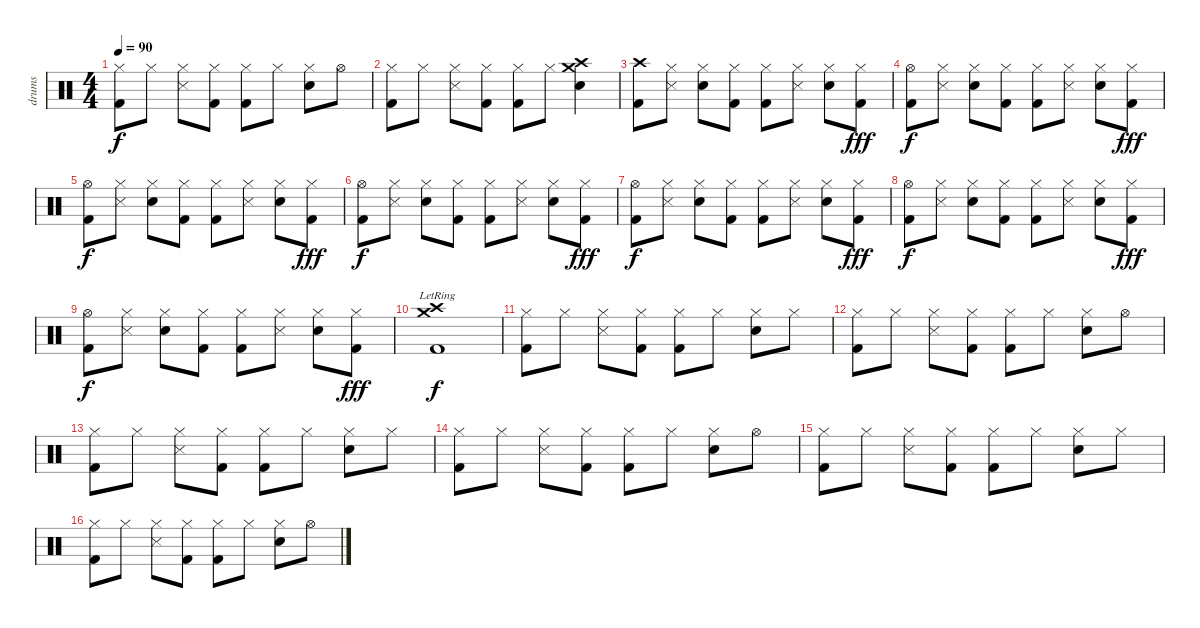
\track ("drums" "drums") {instrument percussion}
\staff {score}
\articulation defaults
\ts (4 4)
\tempo 90
\clef neutral
\ks c
("Hi-Hat (closed)" "Kick (hit) 2").8{dy f} "Hi-Hat (closed)".8 ("Hi-Hat (closed)" "Snare (side stick) 3").8 ("Hi-Hat (closed)" "Kick (hit) 2").8 ("Hi-Hat (closed)" "Kick (hit) 2").8 "Hi-Hat (closed)".8 ("Hi-Hat (closed)" "Snare (hit) 2").8 "Hi-Hat (open)".8 |
("Hi-Hat (closed)" "Kick (hit) 2").8 "Hi-Hat (closed)".8 ("Hi-Hat (closed)" "Snare (side stick) 3").8 ("Hi-Hat (closed)" "Kick (hit) 2").8 ("Hi-Hat (closed)" "Kick (hit) 2").8 "Hi-Hat (closed)".8 ("Crash medium (hit)" "Crash high (hit)" "Snare (hit) 2").4 |
("Crash high (hit)" "Kick (hit) 2").8 ("Hi-Hat (closed)" "Snare (side stick) 3").8 ("Hi-Hat (closed)" "Snare (hit) 2").8 ("Hi-Hat (closed)" "Kick (hit) 2").8 ("Hi-Hat (closed)" "Kick (hit) 2").8 ("Hi-Hat (closed)" "Snare (side stick) 3").8 ("Hi-Hat (closed)" "Snare (hit) 2").8 ("Hi-Hat (closed)" "Kick (hit) 2").8{dy fff} |
("Hi-Hat (open)" "Kick (hit) 2").8{dy f} ("Hi-Hat (closed)" "Snare (side stick) 3").8 ("Hi-Hat (closed)" "Snare (hit) 2").8 ("Hi-Hat (closed)" "Kick (hit) 2").8 ("Hi-Hat (closed)" "Kick (hit) 2").8 ("Hi-Hat (closed)" "Snare (side stick) 3").8 ("Hi-Hat (closed)" "Snare (hit) 2").8 ("Hi-Hat (closed)" "Kick (hit) 2").8{dy fff} |
("Hi-Hat (open)" "Kick (hit) 2").8{dy f} ("Hi-Hat (closed)" "Snare (side stick) 3").8 ("Hi-Hat (closed)" "Snare (hit) 2").8 ("Hi-Hat (closed)" "Kick (hit) 2").8 ("Hi-Hat (closed)" "Kick (hit) 2").8 ("Hi-Hat (closed)" "Snare (side stick) 3").8 ("Hi-Hat (closed)" "Snare (hit) 2").8 ("Hi-Hat (closed)" "Kick (hit) 2").8{dy fff} |
("Hi-Hat (open)" "Kick (hit) 2").8{dy f} ("Hi-Hat (closed)" "Snare (side stick) 3").8 ("Hi-Hat (closed)" "Snare (hit) 2").8 ("Hi-Hat (closed)" "Kick (hit) 2").8 ("Hi-Hat (closed)" "Kick (hit) 2").8 ("Hi-Hat (closed)" "Snare (side stick) 3").8 ("Hi-Hat (closed)" "Snare (hit) 2").8 ("Hi-Hat (closed)" "Kick (hit) 2").8{dy fff} |
("Hi-Hat (open)" "Kick (hit) 2").8{dy f} ("Hi-Hat (closed)" "Snare (side stick) 3").8 ("Hi-Hat (closed)" "Snare (hit) 2").8 ("Hi-Hat (closed)" "Kick (hit) 2").8 ("Hi-Hat (closed)" "Kick (hit) 2").8 ("Hi-Hat (closed)" "Snare (side stick) 3").8 ("Hi-Hat (closed)" "Snare (hit) 2").8 ("Hi-Hat (closed)" "Kick (hit) 2").8{dy fff} |
("Hi-Hat (open)" "Kick (hit) 2").8{dy f} ("Hi-Hat (closed)" "Snare (side stick) 3").8 ("Hi-Hat (closed)" "Snare (hit) 2").8 ("Hi-Hat (closed)" "Kick (hit) 2").8 ("Hi-Hat (closed)" "Kick (hit) 2").8 ("Hi-Hat (closed)" "Snare (side stick) 3").8 ("Hi-Hat (closed)" "Snare (hit) 2").8 ("Hi-Hat (closed)" "Kick (hit) 2").8{dy fff} |
("Hi-Hat (open)" "Kick (hit) 2").8{dy f} ("Hi-Hat (closed)" "Snare (side stick) 3").8 ("Hi-Hat (closed)" "Snare (hit) 2").8 ("Hi-Hat (closed)" "Kick (hit) 2").8 ("Hi-Hat (closed)" "Kick (hit) 2").8 ("Hi-Hat (closed)" "Snare (side stick) 3").8 ("Hi-Hat (closed)" "Snare (hit) 2").8 ("Hi-Hat (closed)" "Kick (hit) 2").8{dy fff} |
("Crash high (hit)"{lr} "Crash medium (hit)"{lr} "Kick (hit) 2").1{dy f} |
("Hi-Hat (closed)" "Kick (hit) 2").8 "Hi-Hat (closed)".8 ("Hi-Hat (closed)" "Snare (side stick) 3").8 ("Hi-Hat (closed)" "Kick (hit) 2").8 ("Hi-Hat (closed)" "Kick (hit) 2").8 "Hi-Hat (closed)".8 ("Hi-Hat (closed)" "Snare (hit) 2").8 "Hi-Hat (closed)".8 |
("Hi-Hat (closed)" "Kick (hit) 2").8 "Hi-Hat (closed)".8 ("Hi-Hat (closed)" "Snare (side stick) 3").8 ("Hi-Hat (closed)" "Kick (hit) 2").8 ("Hi-Hat (closed)" "Kick (hit) 2").8 "Hi-Hat (closed)".8 ("Hi-Hat (closed)" "Snare (hit) 2").8 "Hi-Hat (open)".8 |
("Hi-Hat (closed)" "Kick (hit) 2").8 "Hi-Hat (closed)".8 ("Hi-Hat (closed)" "Snare (side stick) 3").8 ("Hi-Hat (closed)" "Kick (hit) 2").8 ("Hi-Hat (closed)" "Kick (hit) 2").8 "Hi-Hat (closed)".8 ("Hi-Hat (closed)" "Snare (hit) 2").8 "Hi-Hat (closed)".8 |
("Hi-Hat (closed)" "Kick (hit) 2").8 "Hi-Hat (closed)".8 ("Hi-Hat (closed)" "Snare (side stick) 3").8 ("Hi-Hat (closed)" "Kick (hit) 2").8 ("Hi-Hat (closed)" "Kick (hit) 2").8 "Hi-Hat (closed)".8 ("Hi-Hat (closed)" "Snare (hit) 2").8 "Hi-Hat (open)".8 |
("Hi-Hat (closed)" "Kick (hit) 2").8 "Hi-Hat (closed)".8 ("Hi-Hat (closed)" "Snare (side stick) 3").8 ("Hi-Hat (closed)" "Kick (hit) 2").8 ("Hi-Hat (closed)" "Kick (hit) 2").8 "Hi-Hat (closed)".8 ("Hi-Hat (closed)" "Snare (hit) 2").8 "Hi-Hat (closed)".8 |
("Hi-Hat (closed)" "Kick (hit) 2").8 "Hi-Hat (closed)".8 ("Hi-Hat (closed)" "Snare (side stick) 3").8 ("Hi-Hat (closed)" "Kick (hit) 2").8 ("Hi-Hat (closed)" "Kick (hit) 2").8 "Hi-Hat (closed)".8 ("Hi-Hat (closed)" "Snare (hit) 2").8 "Hi-Hat (open)".8
